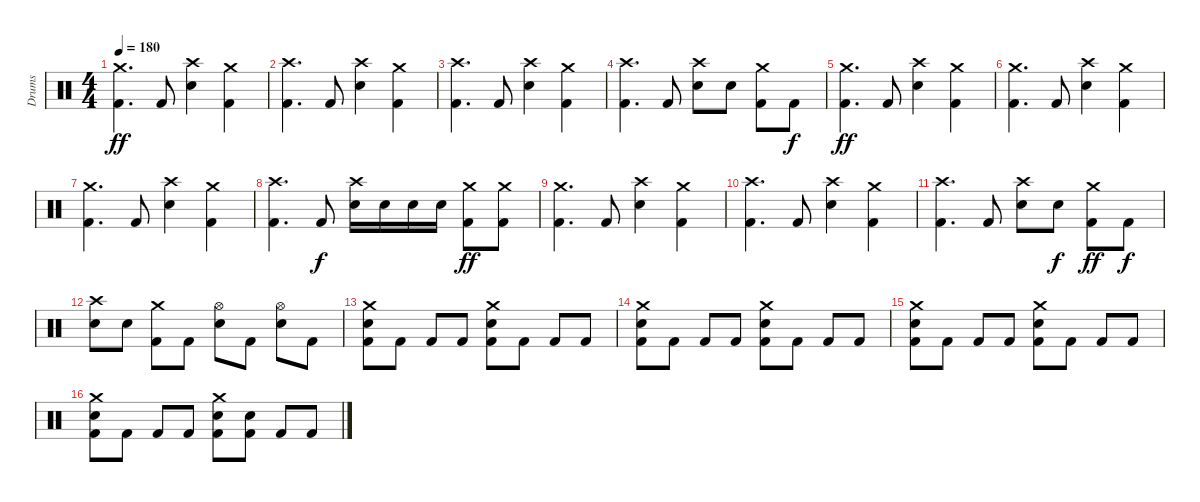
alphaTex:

\track ("Drums" "Drums") {instrument percussion}
\staff {score}
\articulation defaults
\ts (4 4)
\tempo 180
\clef neutral
\ks c
("Crash medium (hit)" "Kick (hit) 2").4{d dy ff} "Kick (hit) 2".8 ("Crash high (hit)" "Electric Snare (hit)").4 ("Crash medium (hit)" "Kick (hit) 2").4 |
("Crash high (hit)" "Kick (hit) 2").4{d} "Kick (hit) 2".8 ("Crash high (hit)" "Electric Snare (hit)").4 ("Crash medium (hit)" "Kick (hit) 2").4 |
("Crash high (hit)" "Kick (hit) 2").4{d} "Kick (hit) 2".8 ("Crash high (hit)" "Electric Snare (hit)").4 ("Crash medium (hit)" "Kick (hit) 2").4 |
("Crash high (hit)" "Kick (hit) 2").4{d} "Kick (hit) 2".8 ("Crash high (hit)" "Electric Snare (hit)").8 "Electric Snare (hit)".8 ("Crash medium (hit)" "Kick (hit) 2").8 "Kick (hit) 2".8{dy f} |
("Crash medium (hit)" "Kick (hit) 2").4{d dy ff} "Kick (hit) 2".8 ("Crash high (hit)" "Electric Snare (hit)").4 ("Crash medium (hit)" "Kick (hit) 2").4 |
("Crash medium (hit)" "Kick (hit) 2").4{d} "Kick (hit) 2".8 ("Crash high (hit)" "Electric Snare (hit)").4 ("Crash medium (hit)" "Kick (hit) 2").4 |
("Crash medium (hit)" "Kick (hit) 2").4{d} "Kick (hit) 2".8 ("Crash high (hit)" "Electric Snare (hit)").4 ("Crash medium (hit)" "Kick (hit) 2").4 |
("Crash high (hit)" "Kick (hit) 2").4{d} "Kick (hit) 2".8{dy f} ("Crash high (hit)" "Electric Snare (hit)").16 "Electric Snare (hit)".16 "Electric Snare (hit)".16 "Electric Snare (hit)".16 ("Crash medium (hit)" "Kick (hit) 2").8{dy ff} ("Crash medium (hit)" "Kick (hit) 2").8 |
("Crash medium (hit)" "Kick (hit) 2").4{d} "Kick (hit) 2".8 ("Crash high (hit)" "Electric Snare (hit)").4 ("Crash medium (hit)" "Kick (hit) 2").4 |
("Crash high (hit)" "Kick (hit) 2").4{d} "Kick (hit) 2".8 ("Crash high (hit)" "Electric Snare (hit)").4 ("Crash medium (hit)" "Kick (hit) 2").4 |
("Crash high (hit)" "Kick (hit) 2").4{d} "Kick (hit) 2".8 ("Crash high (hit)" "Electric Snare (hit)").8 "Electric Snare (hit)".8{dy f} ("Crash medium (hit)" "Kick (hit) 2").8{dy ff} "Kick (hit) 2".8{dy f} |
("Crash high (hit)" "Electric Snare (hit)").8 "Electric Snare (hit)".8 ("Crash medium (hit)" "Kick (hit) 2").8 "Kick (hit) 2".8 ("Hi-Hat (open)" "Electric Snare (hit)").8 "Kick (hit) 2".8 ("Hi-Hat (open)" "Electric Snare (hit)").8 "Kick (hit) 2".8 |
("Crash medium (hit)" "Electric Snare (hit)" "Kick (hit) 2").8 "Kick (hit) 2".8 "Kick (hit) 2".8 "Kick (hit) 2".8 ("Crash medium (hit)" "Electric Snare (hit)" "Kick (hit) 2").8 "Kick (hit) 2".8 "Kick (hit) 2".8 "Kick (hit) 2".8 |
("Crash medium (hit)" "Electric Snare (hit)" "Kick (hit) 2").8 "Kick (hit) 2".8 "Kick (hit) 2".8 "Kick (hit) 2".8 ("Crash medium (hit)" "Electric Snare (hit)" "Kick (hit) 2").8 "Kick (hit) 2".8 "Kick (hit) 2".8 "Kick (hit) 2".8 |
("Crash medium (hit)" "Electric Snare (hit)" "Kick (hit) 2").8 "Kick (hit) 2".8 "Kick (hit) 2".8 "Kick (hit) 2".8 ("Crash medium (hit)" "Electric Snare (hit)" "Kick (hit) 2").8 "Kick (hit) 2".8 "Kick (hit) 2".8 "Kick (hit) 2".8 |
("Crash medium (hit)" "Electric Snare (hit)" "Kick (hit) 2").8 "Kick (hit) 2".8 "Kick (hit) 2".8 "Kick (hit) 2".8 ("Crash medium (hit)" "Electric Snare (hit)" "Kick (hit) 2").8 ("Electric Snare (hit)" "Kick (hit) 2").8 "Kick (hit) 2".8 "Kick (hit) 2".8
